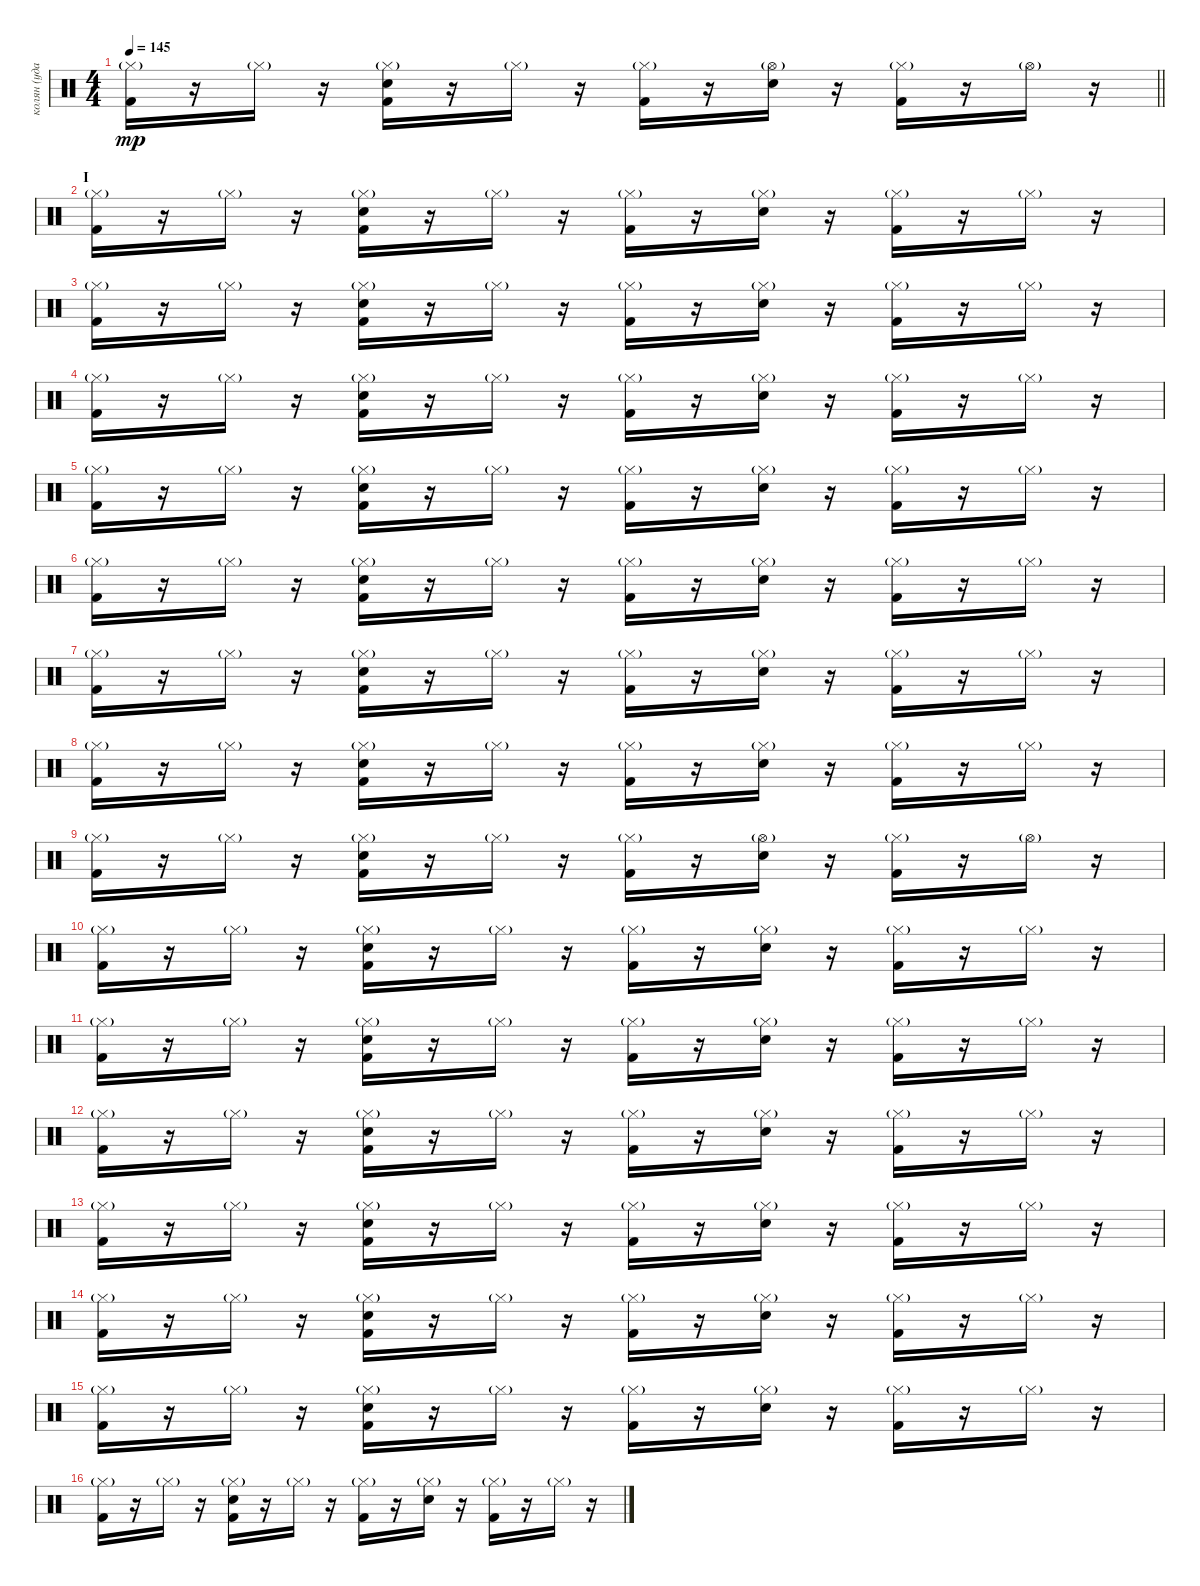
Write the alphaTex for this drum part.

\track ("колян (ударные)" "колян (уда") {instrument percussion}
\staff {score}
\articulation defaults
\ts (4 4)
\tempo 145
\clef neutral
\barLineRight lightlight
\ks c
("Kick (hit) 2" "Hi-Hat (closed)"{g}).16{dy mp} r.16 "Hi-Hat (closed)"{g}.16 r.16 ("Snare (hit) 2" "Kick (hit) 2" "Hi-Hat (closed)"{g}).16 r.16 "Hi-Hat (closed)"{g}.16 r.16 ("Kick (hit) 2" "Hi-Hat (closed)"{g}).16 r.16 ("Snare (hit) 2" "Hi-Hat (open)"{g}).16 r.16 ("Kick (hit) 2" "Hi-Hat (closed)"{g}).16 r.16 "Hi-Hat (open)"{g}.16 r.16 |
\section ("" "I")
("Kick (hit) 2" "Hi-Hat (closed)"{g}).16 r.16 "Hi-Hat (closed)"{g}.16 r.16 ("Snare (hit) 2" "Kick (hit) 2" "Hi-Hat (closed)"{g}).16 r.16 "Hi-Hat (closed)"{g}.16 r.16 ("Kick (hit) 2" "Hi-Hat (closed)"{g}).16 r.16 ("Snare (hit) 2" "Hi-Hat (closed)"{g}).16 r.16 ("Kick (hit) 2" "Hi-Hat (closed)"{g}).16 r.16 "Hi-Hat (closed)"{g}.16 r.16 |
("Kick (hit) 2" "Hi-Hat (closed)"{g}).16 r.16 "Hi-Hat (closed)"{g}.16 r.16 ("Snare (hit) 2" "Kick (hit) 2" "Hi-Hat (closed)"{g}).16 r.16 "Hi-Hat (closed)"{g}.16 r.16 ("Kick (hit) 2" "Hi-Hat (closed)"{g}).16 r.16 ("Snare (hit) 2" "Hi-Hat (closed)"{g}).16 r.16 ("Kick (hit) 2" "Hi-Hat (closed)"{g}).16 r.16 "Hi-Hat (closed)"{g}.16 r.16 |
("Kick (hit) 2" "Hi-Hat (closed)"{g}).16 r.16 "Hi-Hat (closed)"{g}.16 r.16 ("Snare (hit) 2" "Kick (hit) 2" "Hi-Hat (closed)"{g}).16 r.16 "Hi-Hat (closed)"{g}.16 r.16 ("Kick (hit) 2" "Hi-Hat (closed)"{g}).16 r.16 ("Snare (hit) 2" "Hi-Hat (closed)"{g}).16 r.16 ("Kick (hit) 2" "Hi-Hat (closed)"{g}).16 r.16 "Hi-Hat (closed)"{g}.16 r.16 |
("Kick (hit) 2" "Hi-Hat (closed)"{g}).16 r.16 "Hi-Hat (closed)"{g}.16 r.16 ("Snare (hit) 2" "Kick (hit) 2" "Hi-Hat (closed)"{g}).16 r.16 "Hi-Hat (closed)"{g}.16 r.16 ("Kick (hit) 2" "Hi-Hat (closed)"{g}).16 r.16 ("Snare (hit) 2" "Hi-Hat (closed)"{g}).16 r.16 ("Kick (hit) 2" "Hi-Hat (closed)"{g}).16 r.16 "Hi-Hat (closed)"{g}.16 r.16 |
("Kick (hit) 2" "Hi-Hat (closed)"{g}).16 r.16 "Hi-Hat (closed)"{g}.16 r.16 ("Snare (hit) 2" "Kick (hit) 2" "Hi-Hat (closed)"{g}).16 r.16 "Hi-Hat (closed)"{g}.16 r.16 ("Kick (hit) 2" "Hi-Hat (closed)"{g}).16 r.16 ("Snare (hit) 2" "Hi-Hat (closed)"{g}).16 r.16 ("Kick (hit) 2" "Hi-Hat (closed)"{g}).16 r.16 "Hi-Hat (closed)"{g}.16 r.16 |
("Kick (hit) 2" "Hi-Hat (closed)"{g}).16 r.16 "Hi-Hat (closed)"{g}.16 r.16 ("Snare (hit) 2" "Kick (hit) 2" "Hi-Hat (closed)"{g}).16 r.16 "Hi-Hat (closed)"{g}.16 r.16 ("Kick (hit) 2" "Hi-Hat (closed)"{g}).16 r.16 ("Snare (hit) 2" "Hi-Hat (closed)"{g}).16 r.16 ("Kick (hit) 2" "Hi-Hat (closed)"{g}).16 r.16 "Hi-Hat (closed)"{g}.16 r.16 |
("Kick (hit) 2" "Hi-Hat (closed)"{g}).16 r.16 "Hi-Hat (closed)"{g}.16 r.16 ("Snare (hit) 2" "Kick (hit) 2" "Hi-Hat (closed)"{g}).16 r.16 "Hi-Hat (closed)"{g}.16 r.16 ("Kick (hit) 2" "Hi-Hat (closed)"{g}).16 r.16 ("Snare (hit) 2" "Hi-Hat (closed)"{g}).16 r.16 ("Kick (hit) 2" "Hi-Hat (closed)"{g}).16 r.16 "Hi-Hat (closed)"{g}.16 r.16 |
("Kick (hit) 2" "Hi-Hat (closed)"{g}).16 r.16 "Hi-Hat (closed)"{g}.16 r.16 ("Snare (hit) 2" "Kick (hit) 2" "Hi-Hat (closed)"{g}).16 r.16 "Hi-Hat (closed)"{g}.16 r.16 ("Kick (hit) 2" "Hi-Hat (closed)"{g}).16 r.16 ("Snare (hit) 2" "Hi-Hat (open)"{g}).16 r.16 ("Kick (hit) 2" "Hi-Hat (closed)"{g}).16 r.16 "Hi-Hat (open)"{g}.16 r.16 |
("Kick (hit) 2" "Hi-Hat (closed)"{g}).16 r.16 "Hi-Hat (closed)"{g}.16 r.16 ("Snare (hit) 2" "Kick (hit) 2" "Hi-Hat (closed)"{g}).16 r.16 "Hi-Hat (closed)"{g}.16 r.16 ("Kick (hit) 2" "Hi-Hat (closed)"{g}).16 r.16 ("Snare (hit) 2" "Hi-Hat (closed)"{g}).16 r.16 ("Kick (hit) 2" "Hi-Hat (closed)"{g}).16 r.16 "Hi-Hat (closed)"{g}.16 r.16 |
("Kick (hit) 2" "Hi-Hat (closed)"{g}).16 r.16 "Hi-Hat (closed)"{g}.16 r.16 ("Snare (hit) 2" "Kick (hit) 2" "Hi-Hat (closed)"{g}).16 r.16 "Hi-Hat (closed)"{g}.16 r.16 ("Kick (hit) 2" "Hi-Hat (closed)"{g}).16 r.16 ("Snare (hit) 2" "Hi-Hat (closed)"{g}).16 r.16 ("Kick (hit) 2" "Hi-Hat (closed)"{g}).16 r.16 "Hi-Hat (closed)"{g}.16 r.16 |
("Kick (hit) 2" "Hi-Hat (closed)"{g}).16 r.16 "Hi-Hat (closed)"{g}.16 r.16 ("Snare (hit) 2" "Kick (hit) 2" "Hi-Hat (closed)"{g}).16 r.16 "Hi-Hat (closed)"{g}.16 r.16 ("Kick (hit) 2" "Hi-Hat (closed)"{g}).16 r.16 ("Snare (hit) 2" "Hi-Hat (closed)"{g}).16 r.16 ("Kick (hit) 2" "Hi-Hat (closed)"{g}).16 r.16 "Hi-Hat (closed)"{g}.16 r.16 |
("Kick (hit) 2" "Hi-Hat (closed)"{g}).16 r.16 "Hi-Hat (closed)"{g}.16 r.16 ("Snare (hit) 2" "Kick (hit) 2" "Hi-Hat (closed)"{g}).16 r.16 "Hi-Hat (closed)"{g}.16 r.16 ("Kick (hit) 2" "Hi-Hat (closed)"{g}).16 r.16 ("Snare (hit) 2" "Hi-Hat (closed)"{g}).16 r.16 ("Kick (hit) 2" "Hi-Hat (closed)"{g}).16 r.16 "Hi-Hat (closed)"{g}.16 r.16 |
("Kick (hit) 2" "Hi-Hat (closed)"{g}).16 r.16 "Hi-Hat (closed)"{g}.16 r.16 ("Snare (hit) 2" "Kick (hit) 2" "Hi-Hat (closed)"{g}).16 r.16 "Hi-Hat (closed)"{g}.16 r.16 ("Kick (hit) 2" "Hi-Hat (closed)"{g}).16 r.16 ("Snare (hit) 2" "Hi-Hat (closed)"{g}).16 r.16 ("Kick (hit) 2" "Hi-Hat (closed)"{g}).16 r.16 "Hi-Hat (closed)"{g}.16 r.16 |
("Kick (hit) 2" "Hi-Hat (closed)"{g}).16 r.16 "Hi-Hat (closed)"{g}.16 r.16 ("Snare (hit) 2" "Kick (hit) 2" "Hi-Hat (closed)"{g}).16 r.16 "Hi-Hat (closed)"{g}.16 r.16 ("Kick (hit) 2" "Hi-Hat (closed)"{g}).16 r.16 ("Snare (hit) 2" "Hi-Hat (closed)"{g}).16 r.16 ("Kick (hit) 2" "Hi-Hat (closed)"{g}).16 r.16 "Hi-Hat (closed)"{g}.16 r.16 |
("Kick (hit) 2" "Hi-Hat (closed)"{g}).16 r.16 "Hi-Hat (closed)"{g}.16 r.16 ("Snare (hit) 2" "Kick (hit) 2" "Hi-Hat (closed)"{g}).16 r.16 "Hi-Hat (closed)"{g}.16 r.16 ("Kick (hit) 2" "Hi-Hat (closed)"{g}).16 r.16 ("Snare (hit) 2" "Hi-Hat (closed)"{g}).16 r.16 ("Kick (hit) 2" "Hi-Hat (closed)"{g}).16 r.16 "Hi-Hat (closed)"{g}.16 r.16
